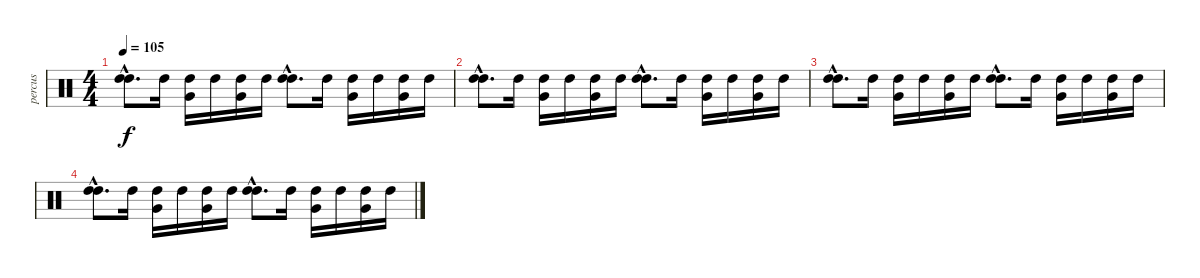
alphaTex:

\track ("percus" "percus") {instrument percussion}
\staff {score}
\articulation defaults
\ts (4 4)
\tempo 105
\clef neutral
\ks c
("High Tom (hit)"{hac} "High Tom (hit)"{hac}).8{d dy f} "High Tom (hit)".16 ("High Tom (hit)" "Very Low Tom (hit)").16 "High Tom (hit)".16 ("High Tom (hit)" "Very Low Tom (hit)").16 "High Tom (hit)".16 ("High Tom (hit)"{hac} "High Tom (hit)"{hac}).8{d} "High Tom (hit)".16 ("High Tom (hit)" "Very Low Tom (hit)").16 "High Tom (hit)".16 ("High Tom (hit)" "Very Low Tom (hit)").16 "High Tom (hit)".16 |
("High Tom (hit)"{hac} "High Tom (hit)"{hac}).8{d} "High Tom (hit)".16 ("High Tom (hit)" "Very Low Tom (hit)").16 "High Tom (hit)".16 ("High Tom (hit)" "Very Low Tom (hit)").16 "High Tom (hit)".16 ("High Tom (hit)"{hac} "High Tom (hit)"{hac}).8{d} "High Tom (hit)".16 ("High Tom (hit)" "Very Low Tom (hit)").16 "High Tom (hit)".16 ("High Tom (hit)" "Very Low Tom (hit)").16 "High Tom (hit)".16 |
("High Tom (hit)"{hac} "High Tom (hit)"{hac}).8{d} "High Tom (hit)".16 ("High Tom (hit)" "Very Low Tom (hit)").16 "High Tom (hit)".16 ("High Tom (hit)" "Very Low Tom (hit)").16 "High Tom (hit)".16 ("High Tom (hit)"{hac} "High Tom (hit)"{hac}).8{d} "High Tom (hit)".16 ("High Tom (hit)" "Very Low Tom (hit)").16 "High Tom (hit)".16 ("High Tom (hit)" "Very Low Tom (hit)").16 "High Tom (hit)".16 |
("High Tom (hit)"{hac} "High Tom (hit)"{hac}).8{d} "High Tom (hit)".16 ("High Tom (hit)" "Very Low Tom (hit)").16 "High Tom (hit)".16 ("High Tom (hit)" "Very Low Tom (hit)").16 "High Tom (hit)".16 ("High Tom (hit)"{hac} "High Tom (hit)"{hac}).8{d} "High Tom (hit)".16 ("High Tom (hit)" "Very Low Tom (hit)").16 "High Tom (hit)".16 ("High Tom (hit)" "Very Low Tom (hit)").16 "High Tom (hit)".16
